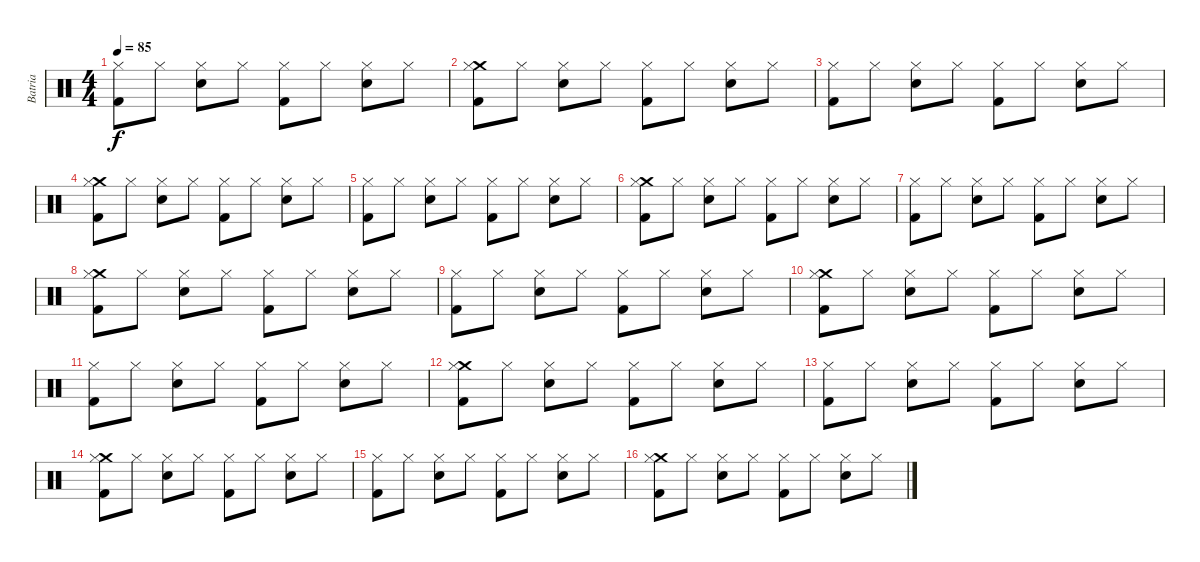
\track ("Batria" "Batria") {instrument percussion}
\staff {score}
\articulation defaults
\ts (4 4)
\tempo 85
\clef neutral
\ks c
("Hi-Hat (closed)" "Kick (hit) 2").8{dy f} "Hi-Hat (closed)".8 ("Hi-Hat (closed)" "Snare (hit) 2").8 "Hi-Hat (closed)".8 ("Hi-Hat (closed)" "Kick (hit) 2").8 "Hi-Hat (closed)".8 ("Hi-Hat (closed)" "Snare (hit) 2").8 "Hi-Hat (closed)".8 |
("Crash medium (hit)" "Hi-Hat (closed)" "Kick (hit) 2").8 "Hi-Hat (closed)".8 ("Hi-Hat (closed)" "Snare (hit) 2").8 "Hi-Hat (closed)".8 ("Hi-Hat (closed)" "Kick (hit) 2").8 "Hi-Hat (closed)".8 ("Hi-Hat (closed)" "Snare (hit) 2").8 "Hi-Hat (closed)".8 |
("Hi-Hat (closed)" "Kick (hit) 2").8 "Hi-Hat (closed)".8 ("Hi-Hat (closed)" "Snare (hit) 2").8 "Hi-Hat (closed)".8 ("Hi-Hat (closed)" "Kick (hit) 2").8 "Hi-Hat (closed)".8 ("Hi-Hat (closed)" "Snare (hit) 2").8 "Hi-Hat (closed)".8 |
("Crash medium (hit)" "Hi-Hat (closed)" "Kick (hit) 2").8 "Hi-Hat (closed)".8 ("Hi-Hat (closed)" "Snare (hit) 2").8 "Hi-Hat (closed)".8 ("Hi-Hat (closed)" "Kick (hit) 2").8 "Hi-Hat (closed)".8 ("Hi-Hat (closed)" "Snare (hit) 2").8 "Hi-Hat (closed)".8 |
("Hi-Hat (closed)" "Kick (hit) 2").8 "Hi-Hat (closed)".8 ("Hi-Hat (closed)" "Snare (hit) 2").8 "Hi-Hat (closed)".8 ("Hi-Hat (closed)" "Kick (hit) 2").8 "Hi-Hat (closed)".8 ("Hi-Hat (closed)" "Snare (hit) 2").8 "Hi-Hat (closed)".8 |
("Crash medium (hit)" "Hi-Hat (closed)" "Kick (hit) 2").8 "Hi-Hat (closed)".8 ("Hi-Hat (closed)" "Snare (hit) 2").8 "Hi-Hat (closed)".8 ("Hi-Hat (closed)" "Kick (hit) 2").8 "Hi-Hat (closed)".8 ("Hi-Hat (closed)" "Snare (hit) 2").8 "Hi-Hat (closed)".8 |
("Hi-Hat (closed)" "Kick (hit) 2").8 "Hi-Hat (closed)".8 ("Hi-Hat (closed)" "Snare (hit) 2").8 "Hi-Hat (closed)".8 ("Hi-Hat (closed)" "Kick (hit) 2").8 "Hi-Hat (closed)".8 ("Hi-Hat (closed)" "Snare (hit) 2").8 "Hi-Hat (closed)".8 |
("Crash medium (hit)" "Hi-Hat (closed)" "Kick (hit) 2").8 "Hi-Hat (closed)".8 ("Hi-Hat (closed)" "Snare (hit) 2").8 "Hi-Hat (closed)".8 ("Hi-Hat (closed)" "Kick (hit) 2").8 "Hi-Hat (closed)".8 ("Hi-Hat (closed)" "Snare (hit) 2").8 "Hi-Hat (closed)".8 |
("Hi-Hat (closed)" "Kick (hit) 2").8 "Hi-Hat (closed)".8 ("Hi-Hat (closed)" "Snare (hit) 2").8 "Hi-Hat (closed)".8 ("Hi-Hat (closed)" "Kick (hit) 2").8 "Hi-Hat (closed)".8 ("Hi-Hat (closed)" "Snare (hit) 2").8 "Hi-Hat (closed)".8 |
("Crash medium (hit)" "Hi-Hat (closed)" "Kick (hit) 2").8 "Hi-Hat (closed)".8 ("Hi-Hat (closed)" "Snare (hit) 2").8 "Hi-Hat (closed)".8 ("Hi-Hat (closed)" "Kick (hit) 2").8 "Hi-Hat (closed)".8 ("Hi-Hat (closed)" "Snare (hit) 2").8 "Hi-Hat (closed)".8 |
("Hi-Hat (closed)" "Kick (hit) 2").8 "Hi-Hat (closed)".8 ("Hi-Hat (closed)" "Snare (hit) 2").8 "Hi-Hat (closed)".8 ("Hi-Hat (closed)" "Kick (hit) 2").8 "Hi-Hat (closed)".8 ("Hi-Hat (closed)" "Snare (hit) 2").8 "Hi-Hat (closed)".8 |
("Crash medium (hit)" "Hi-Hat (closed)" "Kick (hit) 2").8 "Hi-Hat (closed)".8 ("Hi-Hat (closed)" "Snare (hit) 2").8 "Hi-Hat (closed)".8 ("Hi-Hat (closed)" "Kick (hit) 2").8 "Hi-Hat (closed)".8 ("Hi-Hat (closed)" "Snare (hit) 2").8 "Hi-Hat (closed)".8 |
("Hi-Hat (closed)" "Kick (hit) 2").8 "Hi-Hat (closed)".8 ("Hi-Hat (closed)" "Snare (hit) 2").8 "Hi-Hat (closed)".8 ("Hi-Hat (closed)" "Kick (hit) 2").8 "Hi-Hat (closed)".8 ("Hi-Hat (closed)" "Snare (hit) 2").8 "Hi-Hat (closed)".8 |
("Crash medium (hit)" "Hi-Hat (closed)" "Kick (hit) 2").8 "Hi-Hat (closed)".8 ("Hi-Hat (closed)" "Snare (hit) 2").8 "Hi-Hat (closed)".8 ("Hi-Hat (closed)" "Kick (hit) 2").8 "Hi-Hat (closed)".8 ("Hi-Hat (closed)" "Snare (hit) 2").8 "Hi-Hat (closed)".8 |
("Hi-Hat (closed)" "Kick (hit) 2").8 "Hi-Hat (closed)".8 ("Hi-Hat (closed)" "Snare (hit) 2").8 "Hi-Hat (closed)".8 ("Hi-Hat (closed)" "Kick (hit) 2").8 "Hi-Hat (closed)".8 ("Hi-Hat (closed)" "Snare (hit) 2").8 "Hi-Hat (closed)".8 |
("Crash medium (hit)" "Hi-Hat (closed)" "Kick (hit) 2").8 "Hi-Hat (closed)".8 ("Hi-Hat (closed)" "Snare (hit) 2").8 "Hi-Hat (closed)".8 ("Hi-Hat (closed)" "Kick (hit) 2").8 "Hi-Hat (closed)".8 ("Hi-Hat (closed)" "Snare (hit) 2").8 "Hi-Hat (closed)".8
